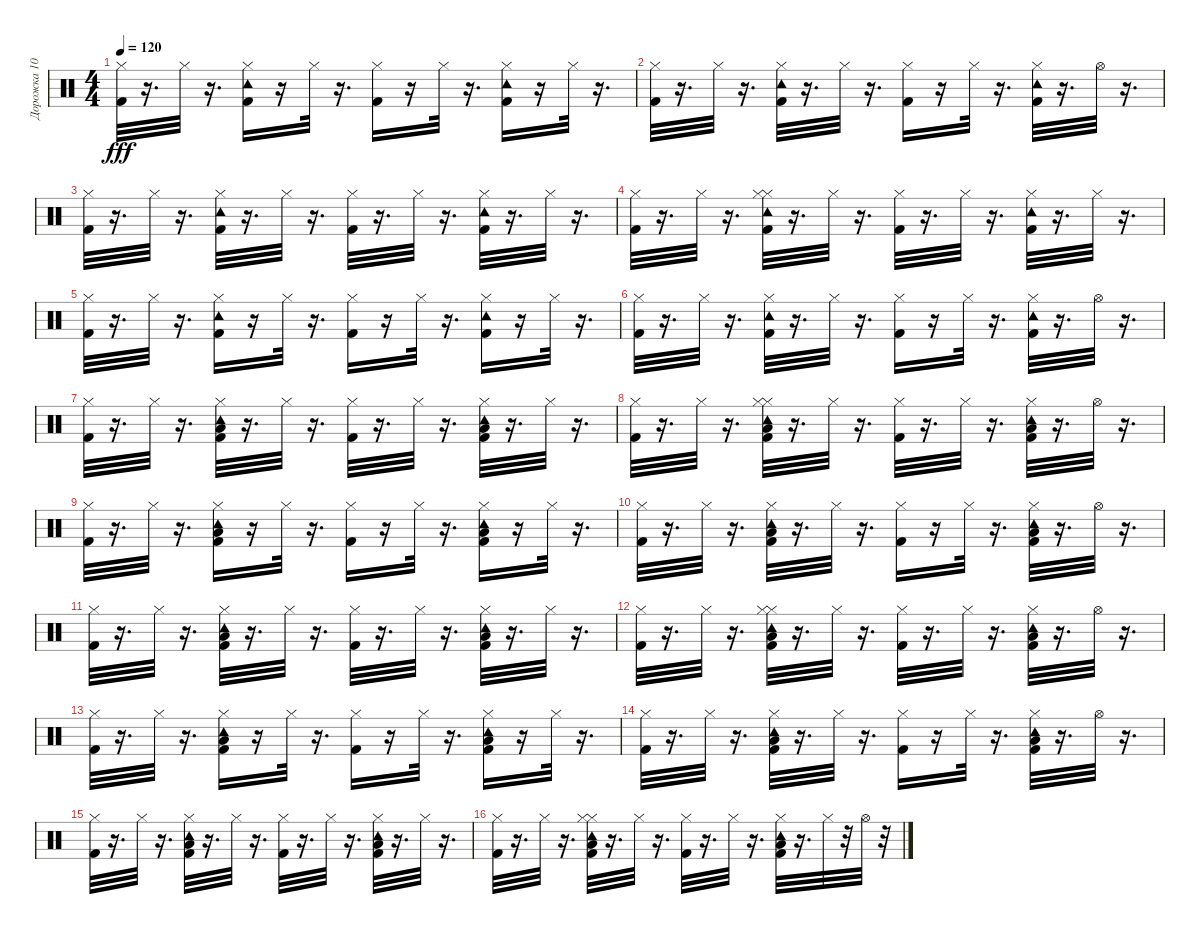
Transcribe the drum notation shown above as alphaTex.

\track ("Дорожка 10" "Дорожка 10") {instrument percussion}
\staff {score}
\articulation defaults
\ts (4 4)
\tempo 120
\clef neutral
\ks c
("Kick (hit) 2" "Hi-Hat (closed)").32{dy fff} r.16{d} "Hi-Hat (closed)".32 r.16{d} ("Tambourine (hit)" "Kick (hit) 2" "Hi-Hat (closed)").16 r.16 "Hi-Hat (closed)".32 r.16{d} ("Kick (hit) 2" "Hi-Hat (closed)").16 r.16 "Hi-Hat (closed)".32 r.16{d} ("Kick (hit) 2" "Hi-Hat (closed)" "Tambourine (hit)").16 r.16 "Hi-Hat (closed)".32 r.16{d} |
("Kick (hit) 2" "Hi-Hat (closed)").32 r.16{d} "Hi-Hat (closed)".32 r.16{d} ("Tambourine (hit)" "Kick (hit) 2" "Hi-Hat (closed)").32 r.16{d} "Hi-Hat (closed)".32 r.16{d} ("Kick (hit) 2" "Hi-Hat (closed)").16 r.16 "Hi-Hat (closed)".32 r.16{d} ("Tambourine (hit)" "Kick (hit) 2" "Hi-Hat (closed)").32 r.16{d} "Hi-Hat (open)".32 r.16{d} |
("Kick (hit) 2" "Hi-Hat (closed)").32 r.16{d} "Hi-Hat (closed)".32 r.16{d} ("Tambourine (hit)" "Kick (hit) 2" "Hi-Hat (closed)").32 r.16{d} "Hi-Hat (closed)".32 r.16{d} ("Hi-Hat (closed)" "Kick (hit) 2").32 r.16{d} "Hi-Hat (closed)".32 r.16{d} ("Tambourine (hit)" "Hi-Hat (closed)" "Kick (hit) 2").32 r.16{d} "Hi-Hat (closed)".32 r.16{d} |
("Kick (hit) 2" "Hi-Hat (closed)").32 r.16{d} "Hi-Hat (closed)".32 r.16{d} ("Tambourine (hit)" "Kick (hit) 2" "Hi-Hat (closed)" "Hi-Hat (closed)").32 r.16{d} "Hi-Hat (closed)".32 r.16{d} ("Hi-Hat (closed)" "Kick (hit) 2").32 r.16{d} "Hi-Hat (closed)".32 r.16{d} ("Kick (hit) 2" "Hi-Hat (closed)" "Tambourine (hit)").32 r.16{d} "Hi-Hat (closed)".32 r.16{d} |
("Kick (hit) 2" "Hi-Hat (closed)").32 r.16{d} "Hi-Hat (closed)".32 r.16{d} ("Tambourine (hit)" "Kick (hit) 2" "Hi-Hat (closed)").16 r.16 "Hi-Hat (closed)".32 r.16{d} ("Kick (hit) 2" "Hi-Hat (closed)").16 r.16 "Hi-Hat (closed)".32 r.16{d} ("Kick (hit) 2" "Hi-Hat (closed)" "Tambourine (hit)").16 r.16 "Hi-Hat (closed)".32 r.16{d} |
("Kick (hit) 2" "Hi-Hat (closed)").32 r.16{d} "Hi-Hat (closed)".32 r.16{d} ("Tambourine (hit)" "Kick (hit) 2" "Hi-Hat (closed)").32 r.16{d} "Hi-Hat (closed)".32 r.16{d} ("Kick (hit) 2" "Hi-Hat (closed)").16 r.16 "Hi-Hat (closed)".32 r.16{d} ("Tambourine (hit)" "Kick (hit) 2" "Hi-Hat (closed)").32 r.16{d} "Hi-Hat (open)".32 r.16{d} |
("Kick (hit) 2" "Hi-Hat (closed)").32 r.16{d} "Hi-Hat (closed)".32 r.16{d} ("Tambourine (hit)" "Kick (hit) 2" "Hi-Hat (closed)" "Low Floor Tom (hit)").32 r.16{d} "Hi-Hat (closed)".32 r.16{d} ("Kick (hit) 2" "Hi-Hat (closed)").32 r.16{d} "Hi-Hat (closed)".32 r.16{d} ("Tambourine (hit)" "Kick (hit) 2" "Hi-Hat (closed)" "Low Floor Tom (hit)").32 r.16{d} "Hi-Hat (closed)".32 r.16{d} |
("Kick (hit) 2" "Hi-Hat (closed)").32 r.16{d} "Hi-Hat (closed)".32 r.16{d} ("Low Floor Tom (hit)" "Tambourine (hit)" "Kick (hit) 2" "Hi-Hat (closed)" "Hi-Hat (closed)").32 r.16{d} "Hi-Hat (closed)".32 r.16{d} ("Kick (hit) 2" "Hi-Hat (closed)").32 r.16{d} "Hi-Hat (closed)".32 r.16{d} ("Low Floor Tom (hit)" "Tambourine (hit)" "Kick (hit) 2" "Hi-Hat (closed)").32 r.16{d} "Hi-Hat (open)".32 r.16{d} |
("Kick (hit) 2" "Hi-Hat (closed)").32 r.16{d} "Hi-Hat (closed)".32 r.16{d} ("Low Floor Tom (hit)" "Tambourine (hit)" "Kick (hit) 2" "Hi-Hat (closed)").16 r.16 "Hi-Hat (closed)".32 r.16{d} ("Kick (hit) 2" "Hi-Hat (closed)").16 r.16 "Hi-Hat (closed)".32 r.16{d} ("Low Floor Tom (hit)" "Tambourine (hit)" "Kick (hit) 2" "Hi-Hat (closed)").16 r.16 "Hi-Hat (closed)".32 r.16{d} |
("Kick (hit) 2" "Hi-Hat (closed)").32 r.16{d} "Hi-Hat (closed)".32 r.16{d} ("Low Floor Tom (hit)" "Tambourine (hit)" "Kick (hit) 2" "Hi-Hat (closed)").32 r.16{d} "Hi-Hat (closed)".32 r.16{d} ("Kick (hit) 2" "Hi-Hat (closed)").16 r.16 "Hi-Hat (closed)".32 r.16{d} ("Tambourine (hit)" "Kick (hit) 2" "Hi-Hat (closed)" "Low Floor Tom (hit)").32 r.16{d} "Hi-Hat (open)".32 r.16{d} |
("Kick (hit) 2" "Hi-Hat (closed)").32 r.16{d} "Hi-Hat (closed)".32 r.16{d} ("Tambourine (hit)" "Kick (hit) 2" "Hi-Hat (closed)" "Low Floor Tom (hit)").32 r.16{d} "Hi-Hat (closed)".32 r.16{d} ("Kick (hit) 2" "Hi-Hat (closed)").32 r.16{d} "Hi-Hat (closed)".32 r.16{d} ("Tambourine (hit)" "Kick (hit) 2" "Hi-Hat (closed)" "Low Floor Tom (hit)").32 r.16{d} "Hi-Hat (closed)".32 r.16{d} |
("Kick (hit) 2" "Hi-Hat (closed)").32 r.16{d} "Hi-Hat (closed)".32 r.16{d} ("Low Floor Tom (hit)" "Tambourine (hit)" "Kick (hit) 2" "Hi-Hat (closed)" "Hi-Hat (closed)").32 r.16{d} "Hi-Hat (closed)".32 r.16{d} ("Kick (hit) 2" "Hi-Hat (closed)").32 r.16{d} "Hi-Hat (closed)".32 r.16{d} ("Low Floor Tom (hit)" "Tambourine (hit)" "Kick (hit) 2" "Hi-Hat (closed)").32 r.16{d} "Hi-Hat (open)".32 r.16{d} |
("Kick (hit) 2" "Hi-Hat (closed)").32 r.16{d} "Hi-Hat (closed)".32 r.16{d} ("Low Floor Tom (hit)" "Tambourine (hit)" "Kick (hit) 2" "Hi-Hat (closed)").16 r.16 "Hi-Hat (closed)".32 r.16{d} ("Kick (hit) 2" "Hi-Hat (closed)").16 r.16 "Hi-Hat (closed)".32 r.16{d} ("Low Floor Tom (hit)" "Tambourine (hit)" "Kick (hit) 2" "Hi-Hat (closed)").16 r.16 "Hi-Hat (closed)".32 r.16{d} |
("Kick (hit) 2" "Hi-Hat (closed)").32 r.16{d} "Hi-Hat (closed)".32 r.16{d} ("Low Floor Tom (hit)" "Tambourine (hit)" "Kick (hit) 2" "Hi-Hat (closed)").32 r.16{d} "Hi-Hat (closed)".32 r.16{d} ("Kick (hit) 2" "Hi-Hat (closed)").16 r.16 "Hi-Hat (closed)".32 r.16{d} ("Tambourine (hit)" "Kick (hit) 2" "Hi-Hat (closed)" "Low Floor Tom (hit)").32 r.16{d} "Hi-Hat (open)".32 r.16{d} |
("Kick (hit) 2" "Hi-Hat (closed)").32 r.16{d} "Hi-Hat (closed)".32 r.16{d} ("Tambourine (hit)" "Kick (hit) 2" "Hi-Hat (closed)" "Low Floor Tom (hit)").32 r.16{d} "Hi-Hat (closed)".32 r.16{d} ("Kick (hit) 2" "Hi-Hat (closed)").32 r.16{d} "Hi-Hat (closed)".32 r.16{d} ("Tambourine (hit)" "Kick (hit) 2" "Hi-Hat (closed)" "Low Floor Tom (hit)").32 r.16{d} "Hi-Hat (closed)".32 r.16{d} |
("Kick (hit) 2" "Hi-Hat (closed)").32 r.16{d} "Hi-Hat (closed)".32 r.16{d} ("Low Floor Tom (hit)" "Tambourine (hit)" "Kick (hit) 2" "Hi-Hat (closed)" "Hi-Hat (closed)").32 r.16{d} "Hi-Hat (closed)".32 r.16{d} ("Kick (hit) 2" "Hi-Hat (closed)").32 r.16{d} "Hi-Hat (closed)".32 r.16{d} ("Low Floor Tom (hit)" "Tambourine (hit)" "Kick (hit) 2" "Hi-Hat (closed)").32 r.16{d} "Hi-Hat (closed)".32 r.32 "Hi-Hat (open)".32 r.32
